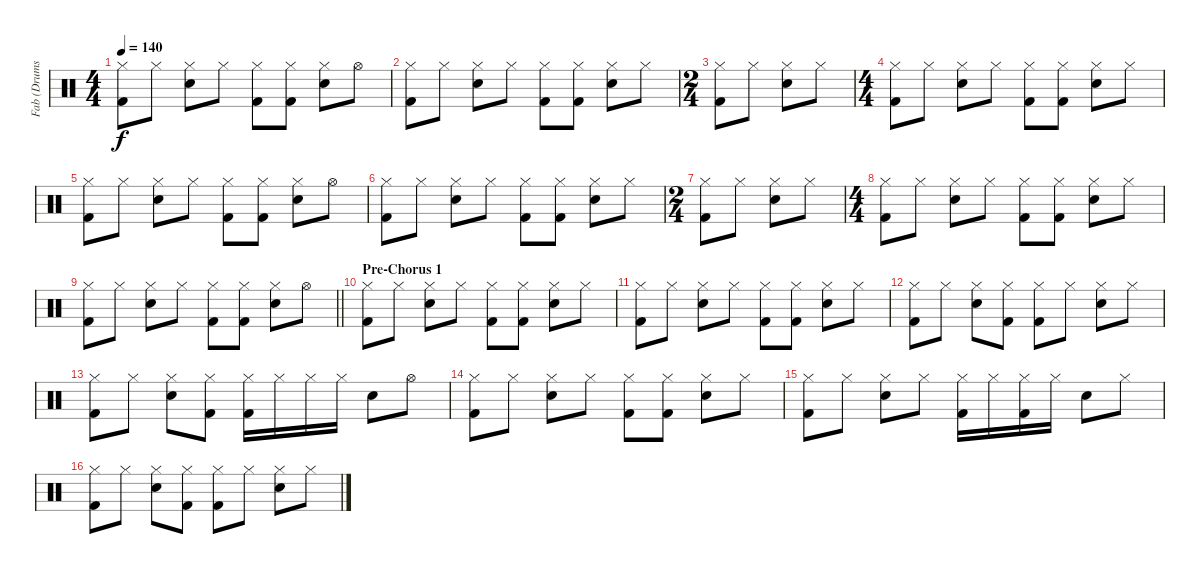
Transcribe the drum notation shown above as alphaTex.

\track ("Fab (Drums)" "Fab (Drums") {instrument percussion}
\staff {score}
\articulation defaults
\ts (4 4)
\tempo 140
\clef neutral
\ks c
("Hi-Hat (closed)" "Kick (hit) 2").8{dy f} "Hi-Hat (closed)".8 ("Hi-Hat (closed)" "Snare (hit) 2").8 "Hi-Hat (closed)".8 ("Hi-Hat (closed)" "Kick (hit) 2").8 ("Hi-Hat (closed)" "Kick (hit) 2").8 ("Hi-Hat (closed)" "Snare (hit) 2").8 "Hi-Hat (open)".8 |
("Hi-Hat (closed)" "Kick (hit) 2").8 "Hi-Hat (closed)".8 ("Hi-Hat (closed)" "Snare (hit) 2").8 "Hi-Hat (closed)".8 ("Hi-Hat (closed)" "Kick (hit) 2").8 ("Hi-Hat (closed)" "Kick (hit) 2").8 ("Hi-Hat (closed)" "Snare (hit) 2").8 "Hi-Hat (closed)".8 |
\ts (2 4)
("Hi-Hat (closed)" "Kick (hit) 2").8 "Hi-Hat (closed)".8 ("Hi-Hat (closed)" "Snare (hit) 2").8 "Hi-Hat (closed)".8 |
\ts (4 4)
("Hi-Hat (closed)" "Kick (hit) 2").8 "Hi-Hat (closed)".8 ("Hi-Hat (closed)" "Snare (hit) 2").8 "Hi-Hat (closed)".8 ("Hi-Hat (closed)" "Kick (hit) 2").8 ("Hi-Hat (closed)" "Kick (hit) 2").8 ("Hi-Hat (closed)" "Snare (hit) 2").8 "Hi-Hat (closed)".8 |
("Hi-Hat (closed)" "Kick (hit) 2").8 "Hi-Hat (closed)".8 ("Hi-Hat (closed)" "Snare (hit) 2").8 "Hi-Hat (closed)".8 ("Hi-Hat (closed)" "Kick (hit) 2").8 ("Hi-Hat (closed)" "Kick (hit) 2").8 ("Hi-Hat (closed)" "Snare (hit) 2").8 "Hi-Hat (open)".8 |
("Hi-Hat (closed)" "Kick (hit) 2").8 "Hi-Hat (closed)".8 ("Hi-Hat (closed)" "Snare (hit) 2").8 "Hi-Hat (closed)".8 ("Hi-Hat (closed)" "Kick (hit) 2").8 ("Hi-Hat (closed)" "Kick (hit) 2").8 ("Hi-Hat (closed)" "Snare (hit) 2").8 "Hi-Hat (closed)".8 |
\ts (2 4)
("Hi-Hat (closed)" "Kick (hit) 2").8 "Hi-Hat (closed)".8 ("Hi-Hat (closed)" "Snare (hit) 2").8 "Hi-Hat (closed)".8 |
\ts (4 4)
("Hi-Hat (closed)" "Kick (hit) 2").8 "Hi-Hat (closed)".8 ("Hi-Hat (closed)" "Snare (hit) 2").8 "Hi-Hat (closed)".8 ("Hi-Hat (closed)" "Kick (hit) 2").8 ("Hi-Hat (closed)" "Kick (hit) 2").8 ("Hi-Hat (closed)" "Snare (hit) 2").8 "Hi-Hat (closed)".8 |
\barLineRight lightlight
("Hi-Hat (closed)" "Kick (hit) 2").8 "Hi-Hat (closed)".8 ("Hi-Hat (closed)" "Snare (hit) 2").8 "Hi-Hat (closed)".8 ("Hi-Hat (closed)" "Kick (hit) 2").8 ("Hi-Hat (closed)" "Kick (hit) 2").8 ("Hi-Hat (closed)" "Snare (hit) 2").8 "Hi-Hat (open)".8 |
\section ("" "Pre-Chorus 1")
("Hi-Hat (closed)" "Kick (hit) 2").8 "Hi-Hat (closed)".8 ("Hi-Hat (closed)" "Snare (hit) 2").8 "Hi-Hat (closed)".8 ("Hi-Hat (closed)" "Kick (hit) 2").8 ("Hi-Hat (closed)" "Kick (hit) 2").8 ("Hi-Hat (closed)" "Snare (hit) 2").8 "Hi-Hat (closed)".8 |
("Hi-Hat (closed)" "Kick (hit) 2").8 "Hi-Hat (closed)".8 ("Hi-Hat (closed)" "Snare (hit) 2").8 "Hi-Hat (closed)".8 ("Hi-Hat (closed)" "Kick (hit) 2").8 ("Hi-Hat (closed)" "Kick (hit) 2").8 ("Hi-Hat (closed)" "Snare (hit) 2").8 "Hi-Hat (closed)".8 |
("Hi-Hat (closed)" "Kick (hit) 2").8 "Hi-Hat (closed)".8 ("Hi-Hat (closed)" "Snare (hit) 2").8 ("Hi-Hat (closed)" "Kick (hit) 2").8 ("Hi-Hat (closed)" "Kick (hit) 2").8 "Hi-Hat (closed)".8 ("Hi-Hat (closed)" "Snare (hit) 2").8 "Hi-Hat (closed)".8 |
("Hi-Hat (closed)" "Kick (hit) 2").8 "Hi-Hat (closed)".8 ("Hi-Hat (closed)" "Snare (hit) 2").8 ("Hi-Hat (closed)" "Kick (hit) 2").8 ("Hi-Hat (closed)" "Kick (hit) 2").16 "Hi-Hat (closed)".16 "Hi-Hat (closed)".16 "Hi-Hat (closed)".16 "Snare (hit) 2".8 "Hi-Hat (open)".8 |
("Hi-Hat (closed)" "Kick (hit) 2").8 "Hi-Hat (closed)".8 ("Hi-Hat (closed)" "Snare (hit) 2").8 "Hi-Hat (closed)".8 ("Hi-Hat (closed)" "Kick (hit) 2").8 ("Hi-Hat (closed)" "Kick (hit) 2").8 ("Hi-Hat (closed)" "Snare (hit) 2").8 "Hi-Hat (closed)".8 |
("Hi-Hat (closed)" "Kick (hit) 2").8 "Hi-Hat (closed)".8 ("Hi-Hat (closed)" "Snare (hit) 2").8 "Hi-Hat (closed)".8 ("Hi-Hat (closed)" "Kick (hit) 2").16 "Hi-Hat (closed)".16 ("Hi-Hat (closed)" "Kick (hit) 2").16 "Hi-Hat (closed)".16 "Snare (hit) 2".8 "Hi-Hat (closed)".8 |
("Hi-Hat (closed)" "Kick (hit) 2").8 "Hi-Hat (closed)".8 ("Hi-Hat (closed)" "Snare (hit) 2").8 ("Hi-Hat (closed)" "Kick (hit) 2").8 ("Hi-Hat (closed)" "Kick (hit) 2").8 "Hi-Hat (closed)".8 ("Hi-Hat (closed)" "Snare (hit) 2").8 "Hi-Hat (closed)".8
